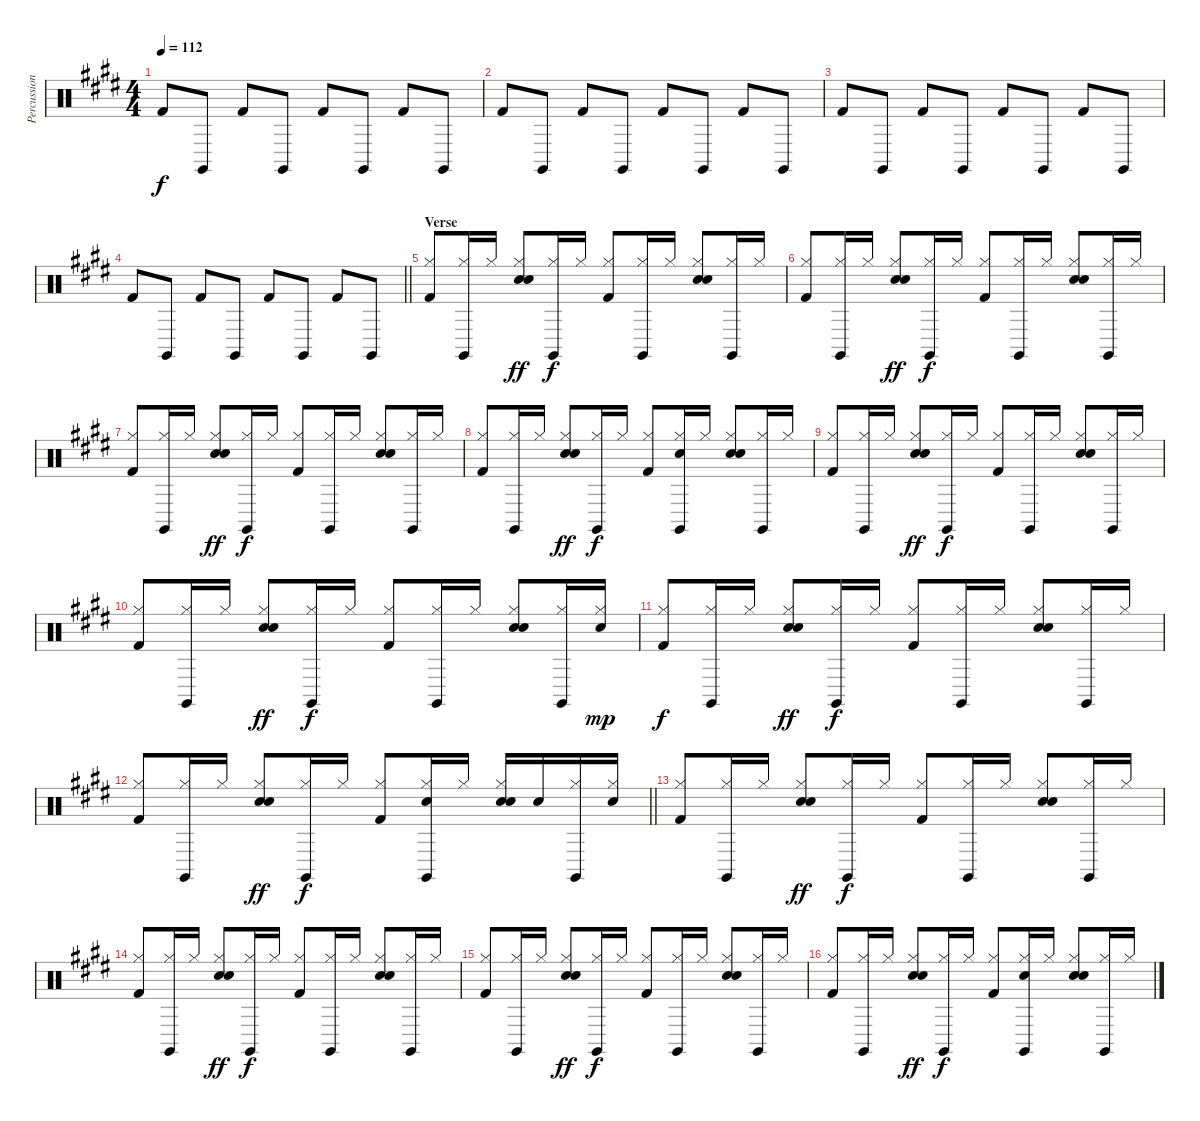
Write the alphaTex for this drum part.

\track ("Percussion" "Percussion") {instrument percussion}
\staff {score}
\articulation defaults
\ts (4 4)
\tempo 112
\clef neutral
\ks e "Kick (hit) 2".8{dy f} "Claves (hit)".8 "Kick (hit) 2".8 "Claves (hit)".8 "Kick (hit) 2".8 "Claves (hit)".8 "Kick (hit) 2".8 "Claves (hit)".8
|
"Kick (hit) 2".8 "Claves (hit)".8 "Kick (hit) 2".8 "Claves (hit)".8 "Kick (hit) 2".8 "Claves (hit)".8 "Kick (hit) 2".8 "Claves (hit)".8 |
"Kick (hit) 2".8 "Claves (hit)".8 "Kick (hit) 2".8 "Claves (hit)".8 "Kick (hit) 2".8 "Claves (hit)".8 "Kick (hit) 2".8 "Claves (hit)".8 |
\barLineRight lightlight "Kick (hit) 2".8 "Claves (hit)".8 "Kick (hit) 2".8 "Claves (hit)".8 "Kick (hit) 2".8 "Claves (hit)".8 "Kick (hit) 2".8 "Claves (hit)".8
|
\section ("" "Verse")
("Hi-Hat (closed)" "Kick (hit) 2").8 ("Claves (hit)" "Hi-Hat (closed)").16 "Hi-Hat (closed)".16 ("Hand Clap (hit)" "Hi-Hat (closed)" "Snare (hit) 2").8{dy ff} ("Claves (hit)" "Hi-Hat (closed)").16{dy f} "Hi-Hat (closed)".16 ("Hi-Hat (closed)" "Kick (hit) 2").8 ("Claves (hit)" "Hi-Hat (closed)").16 "Hi-Hat (closed)".16 ("Hand Clap (hit)" "Hi-Hat (closed)" "Snare (hit) 2").8 ("Claves (hit)" "Hi-Hat (closed)").16 "Hi-Hat (closed)".16 |
("Hi-Hat (closed)" "Kick (hit) 2").8 ("Claves (hit)" "Hi-Hat (closed)").16 "Hi-Hat (closed)".16 ("Hand Clap (hit)" "Hi-Hat (closed)" "Snare (hit) 2").8{dy ff} ("Claves (hit)" "Hi-Hat (closed)").16{dy f} "Hi-Hat (closed)".16 ("Hi-Hat (closed)" "Kick (hit) 2").8 ("Claves (hit)" "Hi-Hat (closed)").16 "Hi-Hat (closed)".16 ("Hand Clap (hit)" "Hi-Hat (closed)" "Snare (hit) 2").8 ("Claves (hit)" "Hi-Hat (closed)").16 "Hi-Hat (closed)".16 |
("Hi-Hat (closed)" "Kick (hit) 2").8 ("Claves (hit)" "Hi-Hat (closed)").16 "Hi-Hat (closed)".16 ("Hand Clap (hit)" "Hi-Hat (closed)" "Snare (hit) 2").8{dy ff} ("Claves (hit)" "Hi-Hat (closed)").16{dy f} "Hi-Hat (closed)".16 ("Hi-Hat (closed)" "Kick (hit) 2").8 ("Claves (hit)" "Hi-Hat (closed)").16 "Hi-Hat (closed)".16 ("Hand Clap (hit)" "Hi-Hat (closed)" "Snare (hit) 2").8 ("Claves (hit)" "Hi-Hat (closed)").16 "Hi-Hat (closed)".16 |
("Hi-Hat (closed)" "Kick (hit) 2").8 ("Claves (hit)" "Hi-Hat (closed)").16 "Hi-Hat (closed)".16 ("Hand Clap (hit)" "Hi-Hat (closed)" "Snare (hit) 2").8{dy ff} ("Claves (hit)" "Hi-Hat (closed)").16{dy f} "Hi-Hat (closed)".16 ("Hi-Hat (closed)" "Kick (hit) 2").8 ("Claves (hit)" "Hand Clap (hit)" "Hi-Hat (closed)").16 "Hi-Hat (closed)".16 ("Hand Clap (hit)" "Hi-Hat (closed)" "Snare (hit) 2").8 ("Claves (hit)" "Hi-Hat (closed)").16 "Hi-Hat (closed)".16 |
("Hi-Hat (closed)" "Kick (hit) 2").8 ("Claves (hit)" "Hi-Hat (closed)").16 "Hi-Hat (closed)".16 ("Hand Clap (hit)" "Hi-Hat (closed)" "Snare (hit) 2").8{dy ff} ("Claves (hit)" "Hi-Hat (closed)").16{dy f} "Hi-Hat (closed)".16 ("Hi-Hat (closed)" "Kick (hit) 2").8 ("Claves (hit)" "Hi-Hat (closed)").16 "Hi-Hat (closed)".16 ("Hand Clap (hit)" "Hi-Hat (closed)" "Snare (hit) 2").8 ("Claves (hit)" "Hi-Hat (closed)").16 "Hi-Hat (closed)".16 |
("Hi-Hat (closed)" "Kick (hit) 2").8 ("Claves (hit)" "Hi-Hat (closed)").16 "Hi-Hat (closed)".16 ("Hand Clap (hit)" "Hi-Hat (closed)" "Snare (hit) 2").8{dy ff} ("Claves (hit)" "Hi-Hat (closed)").16{dy f} "Hi-Hat (closed)".16 ("Hi-Hat (closed)" "Kick (hit) 2").8 ("Claves (hit)" "Hi-Hat (closed)").16 "Hi-Hat (closed)".16 ("Hand Clap (hit)" "Hi-Hat (closed)" "Snare (hit) 2").8 ("Claves (hit)" "Hi-Hat (closed)").16 ("Electric Snare (hit)" "Hi-Hat (closed)").16{dy mp} |
("Hi-Hat (closed)" "Kick (hit) 2").8{dy f} ("Claves (hit)" "Hi-Hat (closed)").16 "Hi-Hat (closed)".16 ("Hand Clap (hit)" "Hi-Hat (closed)" "Snare (hit) 2").8{dy ff} ("Claves (hit)" "Hi-Hat (closed)").16{dy f} "Hi-Hat (closed)".16 ("Hi-Hat (closed)" "Kick (hit) 2").8 ("Claves (hit)" "Hi-Hat (closed)").16 "Hi-Hat (closed)".16 ("Hand Clap (hit)" "Hi-Hat (closed)" "Snare (hit) 2").8 ("Claves (hit)" "Hi-Hat (closed)").16 "Hi-Hat (closed)".16 |
\barLineRight lightlight
("Hi-Hat (closed)" "Kick (hit) 2").8 ("Claves (hit)" "Hi-Hat (closed)").16 "Hi-Hat (closed)".16 ("Hand Clap (hit)" "Hi-Hat (closed)" "Snare (hit) 2").8{dy ff} ("Claves (hit)" "Hi-Hat (closed)").16{dy f} "Hi-Hat (closed)".16 ("Hi-Hat (closed)" "Kick (hit) 2").8 ("Claves (hit)" "Hi-Hat (closed)" "Snare (hit) 2").16 "Hi-Hat (closed)".16 ("Hand Clap (hit)" "Hi-Hat (closed)" "Snare (hit) 2").16 "Snare (hit) 2".16 ("Claves (hit)" "Hi-Hat (closed)").16 ("Hi-Hat (closed)" "Snare (hit) 2").16 |
("Hi-Hat (closed)" "Kick (hit) 2").8 ("Claves (hit)" "Hi-Hat (closed)").16 "Hi-Hat (closed)".16 ("Hand Clap (hit)" "Hi-Hat (closed)" "Snare (hit) 2").8{dy ff} ("Claves (hit)" "Hi-Hat (closed)").16{dy f} "Hi-Hat (closed)".16 ("Hi-Hat (closed)" "Kick (hit) 2").8 ("Claves (hit)" "Hi-Hat (closed)").16 "Hi-Hat (closed)".16 ("Hand Clap (hit)" "Hi-Hat (closed)" "Snare (hit) 2").8 ("Claves (hit)" "Hi-Hat (closed)").16 "Hi-Hat (closed)".16 |
("Hi-Hat (closed)" "Kick (hit) 2").8 ("Claves (hit)" "Hi-Hat (closed)").16 "Hi-Hat (closed)".16 ("Hand Clap (hit)" "Hi-Hat (closed)" "Snare (hit) 2").8{dy ff} ("Claves (hit)" "Hi-Hat (closed)").16{dy f} "Hi-Hat (closed)".16 ("Hi-Hat (closed)" "Kick (hit) 2").8 ("Claves (hit)" "Hi-Hat (closed)").16 "Hi-Hat (closed)".16 ("Hand Clap (hit)" "Hi-Hat (closed)" "Snare (hit) 2").8 ("Claves (hit)" "Hi-Hat (closed)").16 "Hi-Hat (closed)".16 |
("Hi-Hat (closed)" "Kick (hit) 2").8 ("Claves (hit)" "Hi-Hat (closed)").16 "Hi-Hat (closed)".16 ("Hand Clap (hit)" "Hi-Hat (closed)" "Snare (hit) 2").8{dy ff} ("Claves (hit)" "Hi-Hat (closed)").16{dy f} "Hi-Hat (closed)".16 ("Hi-Hat (closed)" "Kick (hit) 2").8 ("Claves (hit)" "Hi-Hat (closed)").16 "Hi-Hat (closed)".16 ("Hand Clap (hit)" "Hi-Hat (closed)" "Snare (hit) 2").8 ("Claves (hit)" "Hi-Hat (closed)").16 "Hi-Hat (closed)".16 |
("Hi-Hat (closed)" "Kick (hit) 2").8 ("Claves (hit)" "Hi-Hat (closed)").16 "Hi-Hat (closed)".16 ("Hand Clap (hit)" "Hi-Hat (closed)" "Snare (hit) 2").8{dy ff} ("Claves (hit)" "Hi-Hat (closed)").16{dy f} "Hi-Hat (closed)".16 ("Hi-Hat (closed)" "Kick (hit) 2").8 ("Claves (hit)" "Hand Clap (hit)" "Hi-Hat (closed)").16 "Hi-Hat (closed)".16 ("Hand Clap (hit)" "Hi-Hat (closed)" "Snare (hit) 2").8 ("Claves (hit)" "Hi-Hat (closed)").16 "Hi-Hat (closed)".16
